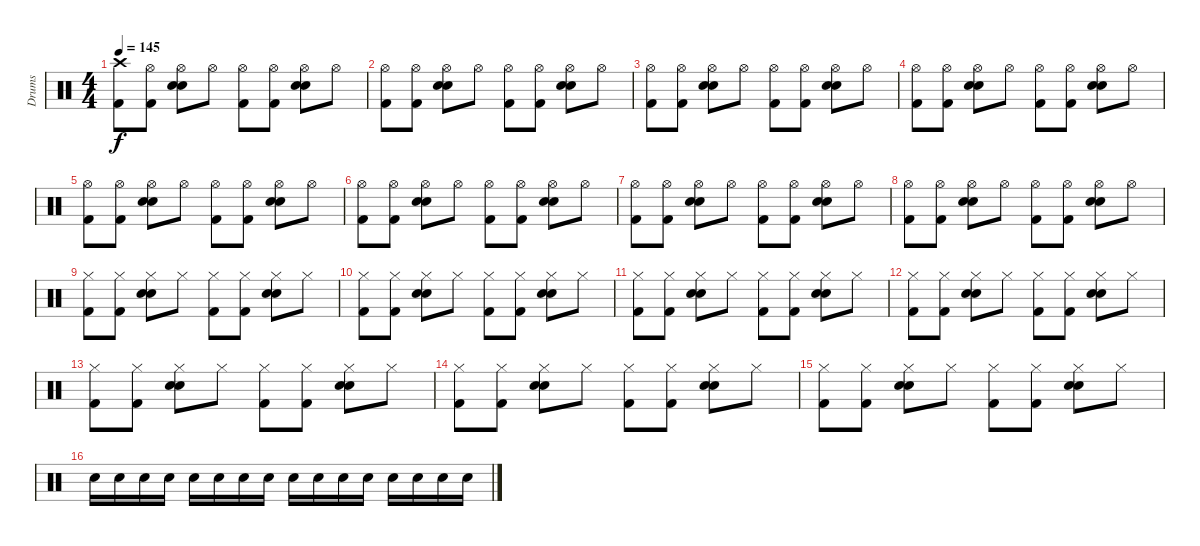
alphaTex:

\track ("Drums" "Drums") {instrument percussion}
\staff {score}
\articulation defaults
\ts (4 4)
\tempo 145
\clef neutral
\ks c
("Crash high (hit)" "Kick (hit) 2").8{dy f} ("Hi-Hat (open)" "Kick (hit) 2").8 ("Hi-Hat (open)" "Electric Snare (hit)" "Snare (hit) 2").8 "Hi-Hat (open)".8 ("Hi-Hat (open)" "Kick (hit) 2").8 ("Hi-Hat (open)" "Kick (hit) 2").8 ("Hi-Hat (open)" "Electric Snare (hit)" "Snare (hit) 2").8 "Hi-Hat (open)".8 |
("Hi-Hat (open)" "Kick (hit) 2").8 ("Hi-Hat (open)" "Kick (hit) 2").8 ("Hi-Hat (open)" "Electric Snare (hit)" "Snare (hit) 2").8 "Hi-Hat (open)".8 ("Hi-Hat (open)" "Kick (hit) 2").8 ("Hi-Hat (open)" "Kick (hit) 2").8 ("Hi-Hat (open)" "Electric Snare (hit)" "Snare (hit) 2").8 "Hi-Hat (open)".8 |
("Hi-Hat (open)" "Kick (hit) 2").8 ("Hi-Hat (open)" "Kick (hit) 2").8 ("Hi-Hat (open)" "Electric Snare (hit)" "Snare (hit) 2").8 "Hi-Hat (open)".8 ("Hi-Hat (open)" "Kick (hit) 2").8 ("Hi-Hat (open)" "Kick (hit) 2").8 ("Hi-Hat (open)" "Electric Snare (hit)" "Snare (hit) 2").8 "Hi-Hat (open)".8 |
("Hi-Hat (open)" "Kick (hit) 2").8 ("Hi-Hat (open)" "Kick (hit) 2").8 ("Hi-Hat (open)" "Electric Snare (hit)" "Snare (hit) 2").8 "Hi-Hat (open)".8 ("Hi-Hat (open)" "Kick (hit) 2").8 ("Hi-Hat (open)" "Kick (hit) 2").8 ("Hi-Hat (open)" "Electric Snare (hit)" "Snare (hit) 2").8 "Hi-Hat (open)".8 |
("Hi-Hat (open)" "Kick (hit) 2").8 ("Hi-Hat (open)" "Kick (hit) 2").8 ("Hi-Hat (open)" "Electric Snare (hit)" "Snare (hit) 2").8 "Hi-Hat (open)".8 ("Hi-Hat (open)" "Kick (hit) 2").8 ("Hi-Hat (open)" "Kick (hit) 2").8 ("Hi-Hat (open)" "Electric Snare (hit)" "Snare (hit) 2").8 "Hi-Hat (open)".8 |
("Hi-Hat (open)" "Kick (hit) 2").8 ("Hi-Hat (open)" "Kick (hit) 2").8 ("Hi-Hat (open)" "Electric Snare (hit)" "Snare (hit) 2").8 "Hi-Hat (open)".8 ("Hi-Hat (open)" "Kick (hit) 2").8 ("Hi-Hat (open)" "Kick (hit) 2").8 ("Hi-Hat (open)" "Electric Snare (hit)" "Snare (hit) 2").8 "Hi-Hat (open)".8 |
("Hi-Hat (open)" "Kick (hit) 2").8 ("Hi-Hat (open)" "Kick (hit) 2").8 ("Hi-Hat (open)" "Electric Snare (hit)" "Snare (hit) 2").8 "Hi-Hat (open)".8 ("Hi-Hat (open)" "Kick (hit) 2").8 ("Hi-Hat (open)" "Kick (hit) 2").8 ("Hi-Hat (open)" "Electric Snare (hit)" "Snare (hit) 2").8 "Hi-Hat (open)".8 |
("Hi-Hat (open)" "Kick (hit) 2").8 ("Hi-Hat (open)" "Kick (hit) 2").8 ("Hi-Hat (open)" "Electric Snare (hit)" "Snare (hit) 2").8 "Hi-Hat (open)".8 ("Hi-Hat (open)" "Kick (hit) 2").8 ("Hi-Hat (open)" "Kick (hit) 2").8 ("Hi-Hat (open)" "Electric Snare (hit)" "Snare (hit) 2").8 "Hi-Hat (open)".8 |
("Hi-Hat (closed)" "Kick (hit) 2").8{volume 10} ("Hi-Hat (closed)" "Kick (hit) 2").8 ("Hi-Hat (closed)" "Electric Snare (hit)" "Snare (hit) 2").8 "Hi-Hat (closed)".8 ("Hi-Hat (closed)" "Kick (hit) 2").8 ("Hi-Hat (closed)" "Kick (hit) 2").8 ("Hi-Hat (closed)" "Electric Snare (hit)" "Snare (hit) 2").8 "Hi-Hat (closed)".8 |
("Hi-Hat (closed)" "Kick (hit) 2").8 ("Hi-Hat (closed)" "Kick (hit) 2").8 ("Hi-Hat (closed)" "Electric Snare (hit)" "Snare (hit) 2").8 "Hi-Hat (closed)".8 ("Hi-Hat (closed)" "Kick (hit) 2").8 ("Hi-Hat (closed)" "Kick (hit) 2").8 ("Hi-Hat (closed)" "Electric Snare (hit)" "Snare (hit) 2").8 "Hi-Hat (closed)".8 |
("Hi-Hat (closed)" "Kick (hit) 2").8 ("Hi-Hat (closed)" "Kick (hit) 2").8 ("Hi-Hat (closed)" "Electric Snare (hit)" "Snare (hit) 2").8 "Hi-Hat (closed)".8 ("Hi-Hat (closed)" "Kick (hit) 2").8 ("Hi-Hat (closed)" "Kick (hit) 2").8 ("Hi-Hat (closed)" "Electric Snare (hit)" "Snare (hit) 2").8 "Hi-Hat (closed)".8 |
("Hi-Hat (closed)" "Kick (hit) 2").8 ("Hi-Hat (closed)" "Kick (hit) 2").8 ("Hi-Hat (closed)" "Electric Snare (hit)" "Snare (hit) 2").8 "Hi-Hat (closed)".8 ("Hi-Hat (closed)" "Kick (hit) 2").8 ("Hi-Hat (closed)" "Kick (hit) 2").8 ("Hi-Hat (closed)" "Electric Snare (hit)" "Snare (hit) 2").8 "Hi-Hat (closed)".8 |
("Hi-Hat (closed)" "Kick (hit) 2").8 ("Hi-Hat (closed)" "Kick (hit) 2").8 ("Hi-Hat (closed)" "Electric Snare (hit)" "Snare (hit) 2").8 "Hi-Hat (closed)".8 ("Hi-Hat (closed)" "Kick (hit) 2").8 ("Hi-Hat (closed)" "Kick (hit) 2").8 ("Hi-Hat (closed)" "Electric Snare (hit)" "Snare (hit) 2").8 "Hi-Hat (closed)".8 |
("Hi-Hat (closed)" "Kick (hit) 2").8 ("Hi-Hat (closed)" "Kick (hit) 2").8 ("Hi-Hat (closed)" "Electric Snare (hit)" "Snare (hit) 2").8 "Hi-Hat (closed)".8 ("Hi-Hat (closed)" "Kick (hit) 2").8 ("Hi-Hat (closed)" "Kick (hit) 2").8 ("Hi-Hat (closed)" "Electric Snare (hit)" "Snare (hit) 2").8 "Hi-Hat (closed)".8 |
("Hi-Hat (closed)" "Kick (hit) 2").8 ("Hi-Hat (closed)" "Kick (hit) 2").8 ("Hi-Hat (closed)" "Electric Snare (hit)" "Snare (hit) 2").8 "Hi-Hat (closed)".8 ("Hi-Hat (closed)" "Kick (hit) 2").8 ("Hi-Hat (closed)" "Kick (hit) 2").8 ("Hi-Hat (closed)" "Electric Snare (hit)" "Snare (hit) 2").8 "Hi-Hat (closed)".8{volume 3} |
"Electric Snare (hit)".16{volume 12} "Electric Snare (hit)".16 "Electric Snare (hit)".16 "Electric Snare (hit)".16 "Electric Snare (hit)".16 "Electric Snare (hit)".16 "Electric Snare (hit)".16 "Electric Snare (hit)".16 "Electric Snare (hit)".16 "Electric Snare (hit)".16 "Electric Snare (hit)".16 "Electric Snare (hit)".16 "Electric Snare (hit)".16 "Electric Snare (hit)".16 "Electric Snare (hit)".16 "Electric Snare (hit)".16
